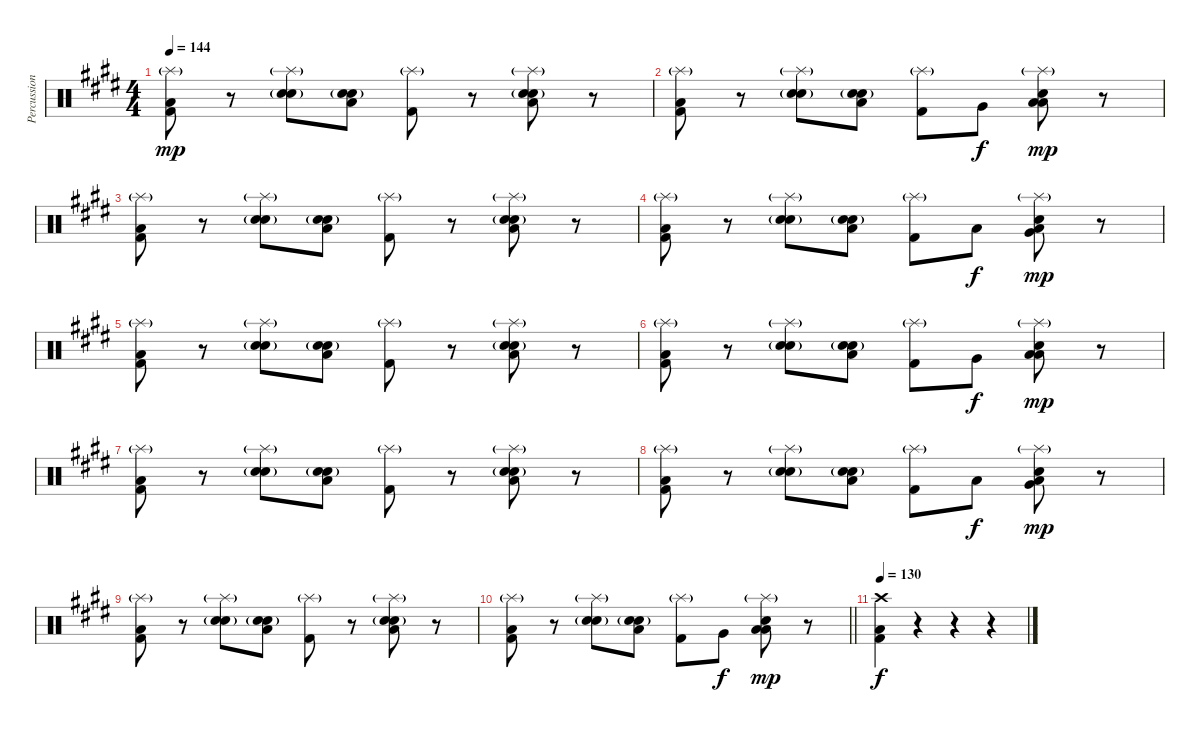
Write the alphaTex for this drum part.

\track ("Percussion" "Percussion") {instrument percussion}
\staff {score}
\articulation defaults
\ts (4 4)
\tempo 144
\clef neutral
\ks e
("Splash (hit)"{g} "Low Floor Tom (hit)" "Kick (hit) 2").8{dy mp} r.8 ("Splash (hit)"{g} "Hand Clap (hit)" "Electric Snare (hit)"{g}).8 ("Hand Clap (hit)" "Electric Snare (hit)"{g} "Low Floor Tom (hit)").8 ("Splash (hit)"{g} "Kick (hit) 2").8 r.8 ("Splash (hit)"{g} "Hand Clap (hit)" "Electric Snare (hit)"{g} "Low Floor Tom (hit)").8 r.8 |
("Splash (hit)"{g} "Low Floor Tom (hit)" "Kick (hit) 2").8 r.8 ("Splash (hit)"{g} "Hand Clap (hit)" "Electric Snare (hit)"{g}).8 ("Hand Clap (hit)" "Electric Snare (hit)"{g} "Low Floor Tom (hit)").8 ("Splash (hit)"{g} "Kick (hit) 2").8 "Very Low Tom (hit)".8{dy f} ("Splash (hit)"{g} "Hand Clap (hit)" "Low Tom (hit)" "Low Floor Tom (hit)").8{dy mp} r.8 |
("Splash (hit)"{g} "Low Floor Tom (hit)" "Kick (hit) 2").8 r.8 ("Splash (hit)"{g} "Hand Clap (hit)" "Electric Snare (hit)"{g}).8 ("Hand Clap (hit)" "Electric Snare (hit)"{g} "Low Floor Tom (hit)").8 ("Splash (hit)"{g} "Kick (hit) 2").8 r.8 ("Splash (hit)"{g} "Hand Clap (hit)" "Electric Snare (hit)"{g} "Low Floor Tom (hit)").8 r.8 |
("Splash (hit)"{g} "Low Floor Tom (hit)" "Kick (hit) 2").8 r.8 ("Splash (hit)"{g} "Hand Clap (hit)" "Electric Snare (hit)"{g}).8 ("Hand Clap (hit)" "Electric Snare (hit)"{g} "Low Floor Tom (hit)").8 ("Splash (hit)"{g} "Kick (hit) 2").8 "Low Tom (hit)".8{dy f} ("Splash (hit)"{g} "Hand Clap (hit)" "Very Low Tom (hit)" "Low Floor Tom (hit)").8{dy mp} r.8 |
("Splash (hit)"{g} "Low Floor Tom (hit)" "Kick (hit) 2").8 r.8 ("Splash (hit)"{g} "Hand Clap (hit)" "Electric Snare (hit)"{g}).8 ("Hand Clap (hit)" "Electric Snare (hit)"{g} "Low Floor Tom (hit)").8 ("Splash (hit)"{g} "Kick (hit) 2").8 r.8 ("Splash (hit)"{g} "Hand Clap (hit)" "Electric Snare (hit)"{g} "Low Floor Tom (hit)").8 r.8 |
("Splash (hit)"{g} "Low Floor Tom (hit)" "Kick (hit) 2").8 r.8 ("Splash (hit)"{g} "Hand Clap (hit)" "Electric Snare (hit)"{g}).8 ("Hand Clap (hit)" "Electric Snare (hit)"{g} "Low Floor Tom (hit)").8 ("Splash (hit)"{g} "Kick (hit) 2").8 "Very Low Tom (hit)".8{dy f} ("Splash (hit)"{g} "Hand Clap (hit)" "Low Tom (hit)" "Low Floor Tom (hit)").8{dy mp} r.8 |
("Splash (hit)"{g} "Low Floor Tom (hit)" "Kick (hit) 2").8 r.8 ("Splash (hit)"{g} "Hand Clap (hit)" "Electric Snare (hit)"{g}).8 ("Hand Clap (hit)" "Electric Snare (hit)"{g} "Low Floor Tom (hit)").8 ("Splash (hit)"{g} "Kick (hit) 2").8 r.8 ("Splash (hit)"{g} "Hand Clap (hit)" "Electric Snare (hit)"{g} "Low Floor Tom (hit)").8 r.8 |
("Splash (hit)"{g} "Low Floor Tom (hit)" "Kick (hit) 2").8 r.8 ("Splash (hit)"{g} "Hand Clap (hit)" "Electric Snare (hit)"{g}).8 ("Hand Clap (hit)" "Electric Snare (hit)"{g} "Low Floor Tom (hit)").8 ("Splash (hit)"{g} "Kick (hit) 2").8 "Low Tom (hit)".8{dy f} ("Splash (hit)"{g} "Hand Clap (hit)" "Very Low Tom (hit)" "Low Floor Tom (hit)").8{dy mp} r.8 |
("Splash (hit)"{g} "Low Floor Tom (hit)" "Kick (hit) 2").8 r.8 ("Splash (hit)"{g} "Hand Clap (hit)" "Electric Snare (hit)"{g}).8 ("Hand Clap (hit)" "Electric Snare (hit)"{g} "Low Floor Tom (hit)").8 ("Splash (hit)"{g} "Kick (hit) 2").8 r.8 ("Splash (hit)"{g} "Hand Clap (hit)" "Electric Snare (hit)"{g} "Low Floor Tom (hit)").8 r.8 |
\barLineRight lightlight
("Splash (hit)"{g} "Low Floor Tom (hit)" "Kick (hit) 2").8 r.8 ("Splash (hit)"{g} "Hand Clap (hit)" "Electric Snare (hit)"{g}).8 ("Hand Clap (hit)" "Electric Snare (hit)"{g} "Low Floor Tom (hit)").8 ("Splash (hit)"{g} "Kick (hit) 2").8 "Very Low Tom (hit)".8{dy f} ("Splash (hit)"{g} "Hand Clap (hit)" "Low Tom (hit)" "Low Floor Tom (hit)").8{dy mp} r.8 |
\tempo 130
("Crash high (hit)" "Low Floor Tom (hit)" "Kick (hit) 2").4{dy f} r.4 r.4 r.4
